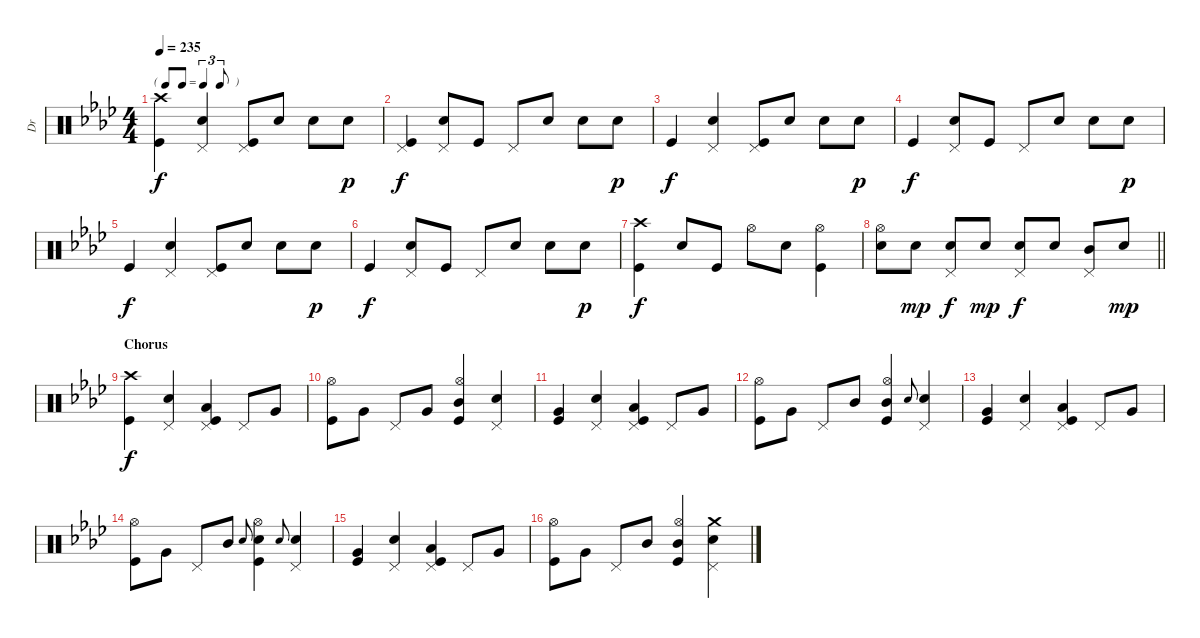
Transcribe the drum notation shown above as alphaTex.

\track ("Dr" "Dr") {instrument percussion}
\staff {score}
\articulation defaults
\ts (4 4)
\tf triplet8th
\tempo 235
\clef neutral
\ks ab
("Crash high (hit)" "Kick (hit)").4{dy f} ("Electric Snare (hit)" "Pedal Hi-Hat (hit)").4 ("Kick (hit)" "Pedal Hi-Hat (hit)").8 "Electric Snare (hit)".8 "Electric Snare (hit)".8 "Electric Snare (hit)".8{dy p} |
("Kick (hit)" "Pedal Hi-Hat (hit)").4{dy f} ("Electric Snare (hit)" "Pedal Hi-Hat (hit)").8 "Kick (hit)".8 "Pedal Hi-Hat (hit)".8 "Electric Snare (hit)".8 "Electric Snare (hit)".8 "Electric Snare (hit)".8{dy p} |
"Kick (hit)".4{dy f} ("Electric Snare (hit)" "Pedal Hi-Hat (hit)").4 ("Kick (hit)" "Pedal Hi-Hat (hit)").8 "Electric Snare (hit)".8 "Electric Snare (hit)".8 "Electric Snare (hit)".8{dy p} |
"Kick (hit)".4{dy f} ("Electric Snare (hit)" "Pedal Hi-Hat (hit)").8 "Kick (hit)".8 "Pedal Hi-Hat (hit)".8 "Electric Snare (hit)".8 "Electric Snare (hit)".8 "Electric Snare (hit)".8{dy p} |
"Kick (hit)".4{dy f} ("Electric Snare (hit)" "Pedal Hi-Hat (hit)").4 ("Kick (hit)" "Pedal Hi-Hat (hit)").8 "Electric Snare (hit)".8 "Electric Snare (hit)".8 "Electric Snare (hit)".8{dy p} |
"Kick (hit)".4{dy f} ("Electric Snare (hit)" "Pedal Hi-Hat (hit)").8 "Kick (hit)".8 "Pedal Hi-Hat (hit)".8 "Electric Snare (hit)".8 "Electric Snare (hit)".8 "Electric Snare (hit)".8{dy p} |
("Crash high (hit)" "Kick (hit)").4{dy f} "Electric Snare (hit)".8 "Kick (hit)".8 "Hi-Hat (open)".8 "Electric Snare (hit)".8 ("Hi-Hat (open)" "Kick (hit)").4 |
\barLineRight lightlight
("Electric Snare (hit)" "Hi-Hat (open)").8 "Electric Snare (hit)".8{dy mp} ("Electric Snare (hit)" "Pedal Hi-Hat (hit)").8{dy f} "Electric Snare (hit)".8{dy mp} ("Electric Snare (hit)" "Pedal Hi-Hat (hit)").8{dy f} "Electric Snare (hit)".8 ("Mid Tom (hit)" "Pedal Hi-Hat (hit)").8 "Electric Snare (hit)".8{dy mp} |
\section ("" "Chorus")
("Crash high (hit)" "Kick (hit)").4{dy f} ("Electric Snare (hit)" "Pedal Hi-Hat (hit)").4 ("Low Floor Tom (hit)" "Kick (hit)" "Pedal Hi-Hat (hit)").4 "Pedal Hi-Hat (hit)".8 "Very Low Tom (hit)".8 |
("Kick (hit)" "Hi-Hat (open)").8 "Very Low Tom (hit)".8 "Pedal Hi-Hat (hit)".8 "Very Low Tom (hit)".8 ("Mid Tom (hit)" "Kick (hit)" "Hi-Hat (open)").4 ("Electric Snare (hit)" "Pedal Hi-Hat (hit)").4 |
("Very Low Tom (hit)" "Kick (hit)").4 ("Electric Snare (hit)" "Pedal Hi-Hat (hit)").4 ("Low Floor Tom (hit)" "Kick (hit)" "Pedal Hi-Hat (hit)").4 "Pedal Hi-Hat (hit)".8 "Very Low Tom (hit)".8 |
("Kick (hit)" "Hi-Hat (open)").8 "Very Low Tom (hit)".8 "Pedal Hi-Hat (hit)".8 "Mid Tom (hit)".8 ("Mid Tom (hit)" "Kick (hit)" "Hi-Hat (open)").4 "Electric Snare (hit)".8{gr onbeat} ("Electric Snare (hit)" "Pedal Hi-Hat (hit)").4 |
("Very Low Tom (hit)" "Kick (hit)").4 ("Electric Snare (hit)" "Pedal Hi-Hat (hit)").4 ("Low Floor Tom (hit)" "Kick (hit)" "Pedal Hi-Hat (hit)").4 "Pedal Hi-Hat (hit)".8 "Very Low Tom (hit)".8 |
("Kick (hit)" "Hi-Hat (open)").8 "Very Low Tom (hit)".8 "Pedal Hi-Hat (hit)".8 "Mid Tom (hit)".8 "Electric Snare (hit)".8{gr onbeat} ("Electric Snare (hit)" "Kick (hit)" "Hi-Hat (open)").4 "Electric Snare (hit)".8{gr onbeat} ("Electric Snare (hit)" "Pedal Hi-Hat (hit)").4 |
("Very Low Tom (hit)" "Kick (hit)").4 ("Electric Snare (hit)" "Pedal Hi-Hat (hit)").4 ("Low Floor Tom (hit)" "Kick (hit)" "Pedal Hi-Hat (hit)").4 "Pedal Hi-Hat (hit)".8 "Very Low Tom (hit)".8 |
("Kick (hit)" "Hi-Hat (open)").8 "Very Low Tom (hit)".8 "Pedal Hi-Hat (hit)".8 "Mid Tom (hit)".8 ("Mid Tom (hit)" "Kick (hit)" "Hi-Hat (open)").4 ("Crash medium (hit)" "Electric Snare (hit)" "Pedal Hi-Hat (hit)").4
